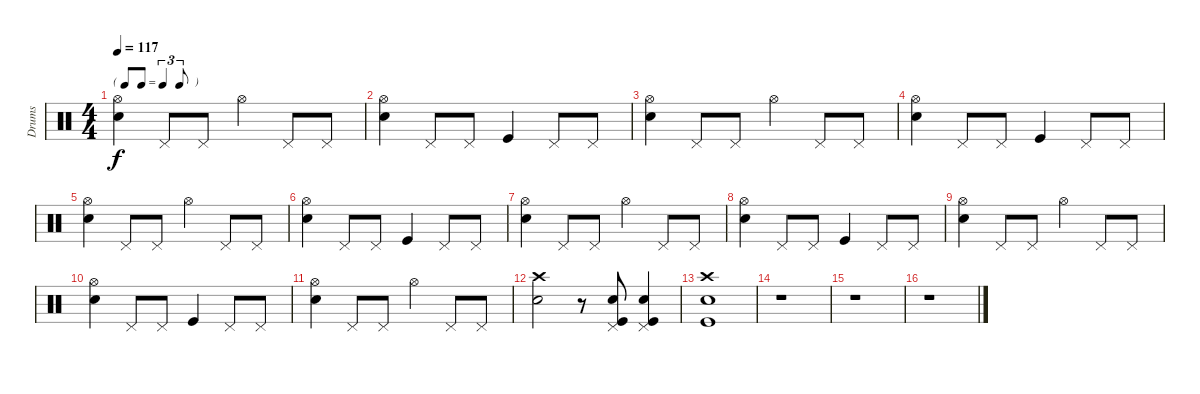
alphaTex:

\track ("Drums" "Drums") {instrument percussion}
\staff {score}
\articulation defaults
\ts (4 4)
\tf triplet8th
\tempo 117
\clef neutral
\ks c
("Hi-Hat (open)" "Snare (hit) 2").4{dy f} "Pedal Hi-Hat (hit)".8 "Pedal Hi-Hat (hit)".8 "Hi-Hat (open)".4 "Pedal Hi-Hat (hit)".8 "Pedal Hi-Hat (hit)".8 |
("Hi-Hat (open)" "Snare (hit) 2").4 "Pedal Hi-Hat (hit)".8 "Pedal Hi-Hat (hit)".8 "Kick (hit)".4 "Pedal Hi-Hat (hit)".8 "Pedal Hi-Hat (hit)".8 |
("Hi-Hat (open)" "Snare (hit) 2").4 "Pedal Hi-Hat (hit)".8 "Pedal Hi-Hat (hit)".8 "Hi-Hat (open)".4 "Pedal Hi-Hat (hit)".8 "Pedal Hi-Hat (hit)".8 |
("Hi-Hat (open)" "Snare (hit) 2").4 "Pedal Hi-Hat (hit)".8 "Pedal Hi-Hat (hit)".8 "Kick (hit)".4 "Pedal Hi-Hat (hit)".8 "Pedal Hi-Hat (hit)".8 |
("Hi-Hat (open)" "Snare (hit) 2").4 "Pedal Hi-Hat (hit)".8 "Pedal Hi-Hat (hit)".8 "Hi-Hat (open)".4 "Pedal Hi-Hat (hit)".8 "Pedal Hi-Hat (hit)".8 |
("Hi-Hat (open)" "Snare (hit) 2").4 "Pedal Hi-Hat (hit)".8 "Pedal Hi-Hat (hit)".8 "Kick (hit)".4 "Pedal Hi-Hat (hit)".8 "Pedal Hi-Hat (hit)".8 |
("Hi-Hat (open)" "Snare (hit) 2").4 "Pedal Hi-Hat (hit)".8 "Pedal Hi-Hat (hit)".8 "Hi-Hat (open)".4 "Pedal Hi-Hat (hit)".8 "Pedal Hi-Hat (hit)".8 |
("Hi-Hat (open)" "Snare (hit) 2").4 "Pedal Hi-Hat (hit)".8 "Pedal Hi-Hat (hit)".8 "Kick (hit)".4 "Pedal Hi-Hat (hit)".8 "Pedal Hi-Hat (hit)".8 |
("Hi-Hat (open)" "Snare (hit) 2").4 "Pedal Hi-Hat (hit)".8 "Pedal Hi-Hat (hit)".8 "Hi-Hat (open)".4 "Pedal Hi-Hat (hit)".8 "Pedal Hi-Hat (hit)".8 |
("Hi-Hat (open)" "Snare (hit) 2").4 "Pedal Hi-Hat (hit)".8 "Pedal Hi-Hat (hit)".8 "Kick (hit)".4 "Pedal Hi-Hat (hit)".8 "Pedal Hi-Hat (hit)".8 |
("Hi-Hat (open)" "Snare (hit) 2").4 "Pedal Hi-Hat (hit)".8 "Pedal Hi-Hat (hit)".8 "Hi-Hat (open)".4 "Pedal Hi-Hat (hit)".8 "Pedal Hi-Hat (hit)".8 |
("Crash high (hit)" "Snare (hit) 2").2 r.8 ("Pedal Hi-Hat (hit)" "Snare (hit) 2" "Kick (hit)").8 ("Pedal Hi-Hat (hit)" "Snare (hit) 2" "Kick (hit)").4 |
("Crash high (hit)" "Snare (hit) 2" "Kick (hit)").1 |
r.1 |
r.1 |
r.1
